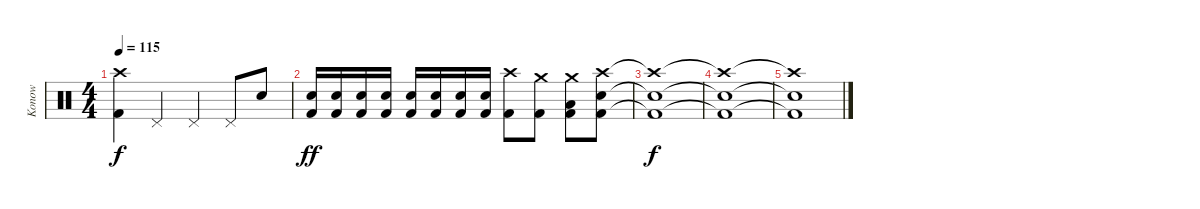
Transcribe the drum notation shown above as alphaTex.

\track ("Konow" "Konow") {instrument percussion}
\staff {score}
\articulation defaults
\ts (4 4)
\tempo 115
\clef neutral
\ks c
("Crash high (hit)" "Kick (hit) 2").4{dy f} "Pedal Hi-Hat (hit)".4 "Pedal Hi-Hat (hit)".4 "Pedal Hi-Hat (hit)".8 "Electric Snare (hit)".8 |
("Electric Snare (hit)" "Kick (hit) 2").16{dy ff} ("Electric Snare (hit)" "Kick (hit) 2").16 ("Electric Snare (hit)" "Kick (hit) 2").16 ("Electric Snare (hit)" "Kick (hit) 2").16 ("Electric Snare (hit)" "Kick (hit) 2").16 ("Electric Snare (hit)" "Kick (hit) 2").16 ("Electric Snare (hit)" "Kick (hit) 2").16 ("Electric Snare (hit)" "Kick (hit) 2").16 ("Crash high (hit)" "Kick (hit) 2").8 ("Crash medium (hit)" "Kick (hit) 2").8 ("Crash medium (hit)" "Low Tom (hit)" "Kick (hit) 2").8 ("Crash high (hit)" "Electric Snare (hit)" "Kick (hit) 2").8 |
("Crash high (hit)"{t} "Electric Snare (hit)"{t} "Kick (hit) 2"{t}).1{dy f} |
("Crash high (hit)"{t} "Electric Snare (hit)"{t} "Kick (hit) 2"{t}).1 |
("Crash high (hit)"{t} "Electric Snare (hit)"{t} "Kick (hit) 2"{t}).1
